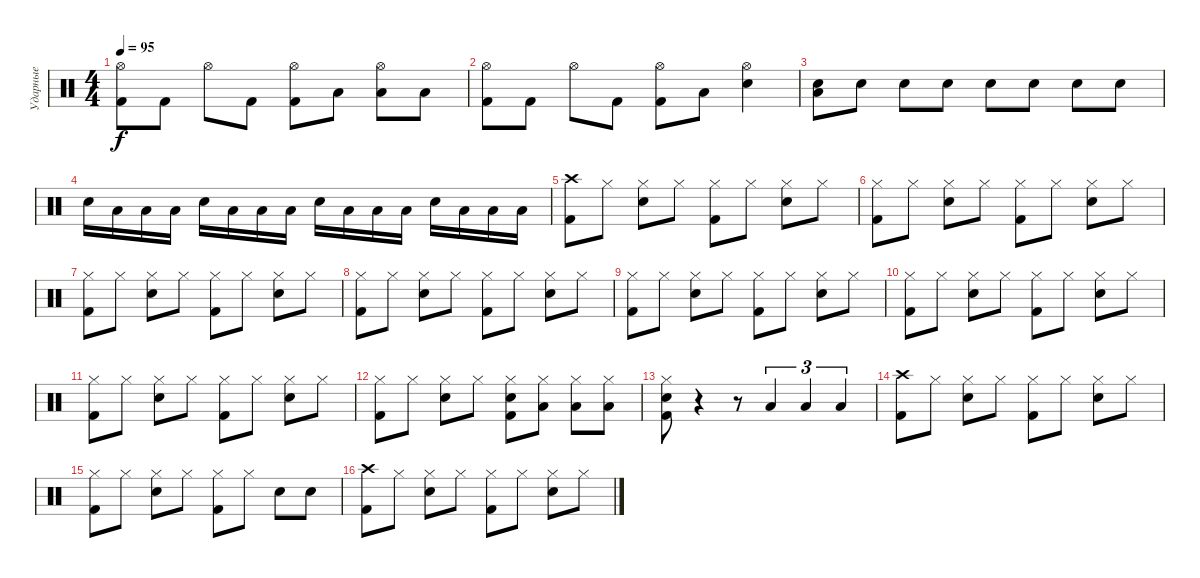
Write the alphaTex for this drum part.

\track ("Ударные" "Ударные") {instrument percussion}
\staff {score}
\articulation defaults
\ts (4 4)
\tempo 95
\clef neutral
\ks c
("Hi-Hat (open)" "Kick (hit) 2").8{dy f} "Kick (hit) 2".8 "Hi-Hat (open)".8 "Kick (hit) 2".8 ("Hi-Hat (open)" "Kick (hit) 2").8 "Low Tom (hit)".8 ("Hi-Hat (open)" "Low Floor Tom (hit)").8 "Low Floor Tom (hit)".8 |
("Hi-Hat (open)" "Kick (hit) 2").8 "Kick (hit) 2".8 "Hi-Hat (open)".8 "Kick (hit) 2".8 ("Hi-Hat (open)" "Kick (hit) 2").8 "Low Tom (hit)".8 ("Hi-Hat (open)" "Snare (hit) 2").4 |
("Snare (hit) 2" "Low Floor Tom (hit)").8 "Snare (hit) 2".8 "Snare (hit) 2".8 "Snare (hit) 2".8 "Snare (hit) 2".8 "Snare (hit) 2".8 "Snare (hit) 2".8 "Snare (hit) 2".8 |
"Snare (hit) 2".16 "Low Floor Tom (hit)".16 "Low Tom (hit)".16 "Low Tom (hit)".16 "Snare (hit) 2".16 "Low Floor Tom (hit)".16 "Low Tom (hit)".16 "Low Tom (hit)".16 "Snare (hit) 2".16 "Low Floor Tom (hit)".16 "Low Tom (hit)".16 "Low Tom (hit)".16 "Snare (hit) 2".16 "Low Floor Tom (hit)".16 "Low Tom (hit)".16 "Low Tom (hit)".16 |
("Crash high (hit)" "Kick (hit) 2").8 "Hi-Hat (closed)".8 ("Hi-Hat (closed)" "Snare (hit) 2").8 "Hi-Hat (closed)".8 ("Hi-Hat (closed)" "Kick (hit) 2").8 "Hi-Hat (closed)".8 ("Hi-Hat (closed)" "Snare (hit) 2").8 "Hi-Hat (closed)".8 |
("Hi-Hat (closed)" "Kick (hit) 2").8 "Hi-Hat (closed)".8 ("Hi-Hat (closed)" "Snare (hit) 2").8 "Hi-Hat (closed)".8 ("Hi-Hat (closed)" "Kick (hit) 2").8 "Hi-Hat (closed)".8 ("Hi-Hat (closed)" "Snare (hit) 2").8 "Hi-Hat (closed)".8 |
("Hi-Hat (closed)" "Kick (hit) 2").8 "Hi-Hat (closed)".8 ("Hi-Hat (closed)" "Snare (hit) 2").8 "Hi-Hat (closed)".8 ("Hi-Hat (closed)" "Kick (hit) 2").8 "Hi-Hat (closed)".8 ("Hi-Hat (closed)" "Snare (hit) 2").8 "Hi-Hat (closed)".8 |
("Hi-Hat (closed)" "Kick (hit) 2").8 "Hi-Hat (closed)".8 ("Hi-Hat (closed)" "Snare (hit) 2").8 "Hi-Hat (closed)".8 ("Hi-Hat (closed)" "Kick (hit) 2").8 "Hi-Hat (closed)".8 ("Hi-Hat (closed)" "Snare (hit) 2").8 "Hi-Hat (closed)".8 |
("Hi-Hat (closed)" "Kick (hit) 2").8 "Hi-Hat (closed)".8 ("Hi-Hat (closed)" "Snare (hit) 2").8 "Hi-Hat (closed)".8 ("Hi-Hat (closed)" "Kick (hit) 2").8 "Hi-Hat (closed)".8 ("Hi-Hat (closed)" "Snare (hit) 2").8 "Hi-Hat (closed)".8 |
("Hi-Hat (closed)" "Kick (hit) 2").8 "Hi-Hat (closed)".8 ("Hi-Hat (closed)" "Snare (hit) 2").8 "Hi-Hat (closed)".8 ("Hi-Hat (closed)" "Kick (hit) 2").8 "Hi-Hat (closed)".8 ("Hi-Hat (closed)" "Snare (hit) 2").8 "Hi-Hat (closed)".8 |
("Hi-Hat (closed)" "Kick (hit) 2").8 "Hi-Hat (closed)".8 ("Hi-Hat (closed)" "Snare (hit) 2").8 "Hi-Hat (closed)".8 ("Hi-Hat (closed)" "Kick (hit) 2").8 "Hi-Hat (closed)".8 ("Hi-Hat (closed)" "Snare (hit) 2").8 "Hi-Hat (closed)".8 |
("Hi-Hat (closed)" "Kick (hit) 2").8 "Hi-Hat (closed)".8 ("Hi-Hat (closed)" "Snare (hit) 2").8 "Hi-Hat (closed)".8 ("Hi-Hat (closed)" "Snare (hit) 2" "Kick (hit) 2").8 ("Hi-Hat (closed)" "Low Tom (hit)").8 ("Hi-Hat (closed)" "Low Floor Tom (hit)").8 ("Hi-Hat (closed)" "Low Floor Tom (hit)").8 |
("Hi-Hat (closed)" "Snare (hit) 2" "Kick (hit) 2").8 r.4 r.8 "Low Floor Tom (hit)".4{tu (3 2)} "Low Floor Tom (hit)".4{tu (3 2)} "Low Floor Tom (hit)".4{tu (3 2)} |
("Crash high (hit)" "Kick (hit) 2").8 "Hi-Hat (closed)".8 ("Hi-Hat (closed)" "Snare (hit) 2").8 "Hi-Hat (closed)".8 ("Hi-Hat (closed)" "Kick (hit) 2").8 "Hi-Hat (closed)".8 ("Hi-Hat (closed)" "Snare (hit) 2").8 "Hi-Hat (closed)".8 |
("Hi-Hat (closed)" "Kick (hit) 2").8 "Hi-Hat (closed)".8 ("Hi-Hat (closed)" "Snare (hit) 2").8 "Hi-Hat (closed)".8 ("Hi-Hat (closed)" "Kick (hit) 2").8 "Hi-Hat (closed)".8 "Snare (hit) 2".8 "Snare (hit) 2".8 |
("Crash high (hit)" "Kick (hit) 2").8 "Hi-Hat (closed)".8 ("Hi-Hat (closed)" "Snare (hit) 2").8 "Hi-Hat (closed)".8 ("Hi-Hat (closed)" "Kick (hit) 2").8 "Hi-Hat (closed)".8 ("Hi-Hat (closed)" "Snare (hit) 2").8 "Hi-Hat (closed)".8
